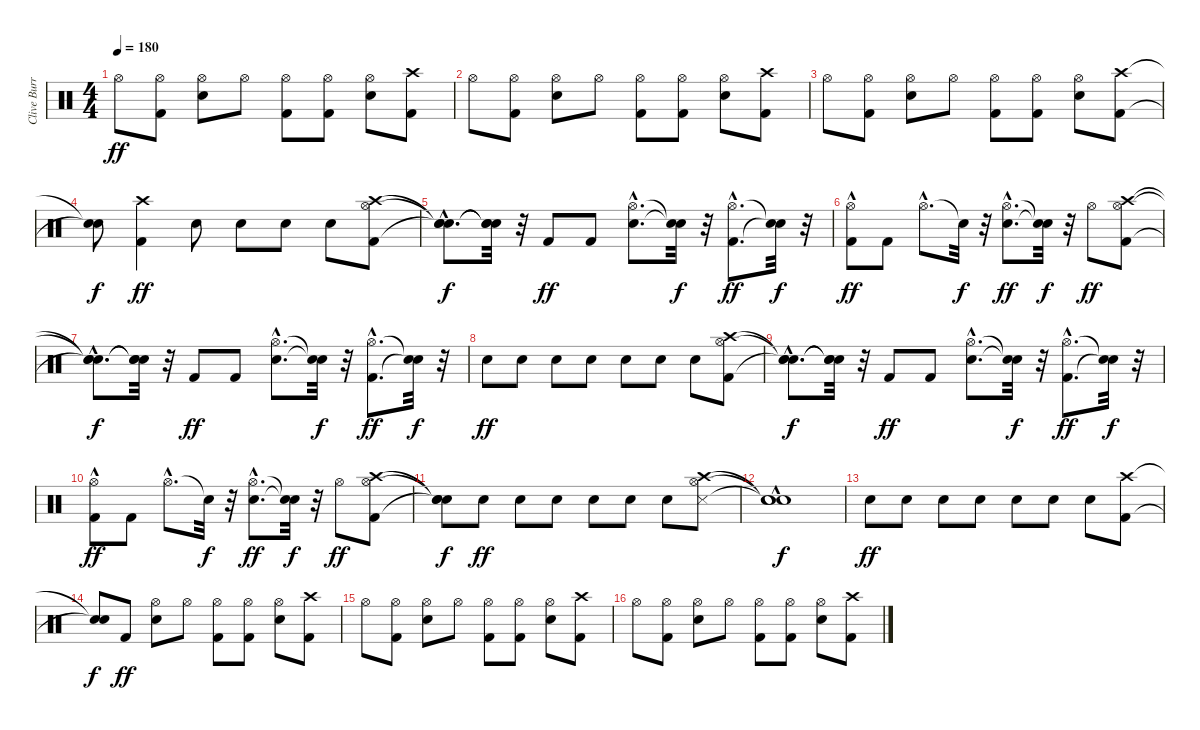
\track ("Clive Burr" "Clive Burr") {instrument percussion}
\staff {score}
\articulation defaults
\ts (4 4)
\tempo 180
\clef neutral
\ks c "Hi-Hat (open)".8{dy ff}
("Kick (hit) 2" "Hi-Hat (open)").8 ("Snare (hit) 2" "Hi-Hat (open)").8 "Hi-Hat (open)".8 ("Kick (hit) 2" "Hi-Hat (open)").8 ("Kick (hit) 2" "Hi-Hat (open)").8 ("Snare (hit) 2" "Hi-Hat (open)").8 ("Kick (hit) 2" "Crash high (hit)").8 |
"Hi-Hat (open)".8 ("Kick (hit) 2" "Hi-Hat (open)").8 ("Snare (hit) 2" "Hi-Hat (open)").8 "Hi-Hat (open)".8 ("Kick (hit) 2" "Hi-Hat (open)").8 ("Kick (hit) 2" "Hi-Hat (open)").8 ("Snare (hit) 2" "Hi-Hat (open)").8 ("Kick (hit) 2" "Crash high (hit)").8 |
"Hi-Hat (open)".8 ("Kick (hit) 2" "Hi-Hat (open)").8 ("Snare (hit) 2" "Hi-Hat (open)").8 "Hi-Hat (open)".8 ("Kick (hit) 2" "Hi-Hat (open)").8 ("Kick (hit) 2" "Hi-Hat (open)").8 ("Snare (hit) 2" "Hi-Hat (open)").8 ("Kick (hit) 2" "Crash high (hit)").8 |
("Snare (hit)"{t} "Snare (hit)"{t}).8{dy f} ("Kick (hit) 2" "Crash high (hit)").4{dy ff} "Snare (hit) 2".8 "Snare (hit) 2".8 "Snare (hit) 2".8 "Snare (hit) 2".8 ("Kick (hit) 2" "Hi-Hat (open)" "Crash high (hit)").8 |
("Snare (hit)"{hac t} "Snare (hit)"{hac t} "Snare (hit)"{hac t}).8{d dy f} ("Snare (hit)"{t} "Snare (hit)"{t} "Snare (hit)"{t}).32 r.32 "Kick (hit) 2".8{dy ff} "Kick (hit) 2".8 ("Snare (hit) 2"{hac} "Hi-Hat (open)"{hac}).8{d} ("Snare (hit)"{t} "Snare (hit)"{t}).32{dy f} r.32 ("Kick (hit) 2"{hac} "Hi-Hat (open)"{hac}).8{d dy ff} ("Snare (hit)"{t} "Snare (hit)"{t}).32{dy f} r.32 |
("Kick (hit) 2" "Hi-Hat (open)"{hac}).8{dy ff} "Kick (hit) 2".8 "Hi-Hat (open)"{hac}.8{d} "Snare (hit)"{t}.32{dy f} r.32 ("Snare (hit) 2"{hac} "Hi-Hat (open)"{hac}).8{d dy ff} ("Snare (hit)"{t} "Snare (hit)"{t}).32{dy f} r.32 "Hi-Hat (open)".8{dy ff} ("Kick (hit) 2" "Hi-Hat (open)" "Crash high (hit)").8 |
("Snare (hit)"{hac t} "Snare (hit)"{hac t} "Snare (hit)"{hac t}).8{d dy f} ("Snare (hit)"{t} "Snare (hit)"{t} "Snare (hit)"{t}).32 r.32 "Kick (hit) 2".8{dy ff} "Kick (hit) 2".8 ("Snare (hit) 2"{hac} "Hi-Hat (open)"{hac}).8{d} ("Snare (hit)"{t} "Snare (hit)"{t}).32{dy f} r.32 ("Kick (hit) 2"{hac} "Hi-Hat (open)"{hac}).8{d dy ff} ("Snare (hit)"{t} "Snare (hit)"{t}).32{dy f} r.32 |
"Snare (hit) 2".8{dy ff} "Snare (hit) 2".8 "Snare (hit) 2".8 "Snare (hit) 2".8 "Snare (hit) 2".8 "Snare (hit) 2".8 "Snare (hit) 2".8 ("Kick (hit) 2" "Hi-Hat (open)" "Crash high (hit)").8 |
("Snare (hit)"{hac t} "Snare (hit)"{hac t} "Snare (hit)"{hac t}).8{d dy f} ("Snare (hit)"{t} "Snare (hit)"{t} "Snare (hit)"{t}).32 r.32 "Kick (hit) 2".8{dy ff} "Kick (hit) 2".8 ("Snare (hit) 2"{hac} "Hi-Hat (open)"{hac}).8{d} ("Snare (hit)"{t} "Snare (hit)"{t}).32{dy f} r.32 ("Kick (hit) 2"{hac} "Hi-Hat (open)"{hac}).8{d dy ff} ("Snare (hit)"{t} "Snare (hit)"{t}).32{dy f} r.32 |
("Kick (hit) 2" "Hi-Hat (open)"{hac}).8{dy ff} "Kick (hit) 2".8 "Hi-Hat (open)"{hac}.8{d} "Snare (hit)"{t}.32{dy f} r.32 ("Snare (hit) 2"{hac} "Hi-Hat (open)"{hac}).8{d dy ff} ("Snare (hit)"{t} "Snare (hit)"{t}).32{dy f} r.32 "Hi-Hat (open)".8{dy ff} ("Kick (hit) 2" "Hi-Hat (open)" "Crash high (hit)").8 |
("Snare (hit)"{t} "Snare (hit)"{t} "Snare (hit)"{t}).8{dy f} "Snare (hit) 2".8{dy ff} "Snare (hit) 2".8 "Snare (hit) 2".8 "Snare (hit) 2".8 "Snare (hit) 2".8 "Snare (hit) 2".8 ("Snare (side stick) 3" "Hi-Hat (open)" "Crash high (hit)").8 |
("Snare (hit)"{t} "Snare (hit)"{hac t} "Snare (hit)"{hac t}).1{dy f} |
"Snare (hit) 2".8{dy ff} "Snare (hit) 2".8 "Snare (hit) 2".8 "Snare (hit) 2".8 "Snare (hit) 2".8 "Snare (hit) 2".8 "Snare (hit) 2".8 ("Kick (hit) 2" "Crash high (hit)").8 |
("Snare (hit)"{t} "Snare (hit)"{t}).8{dy f} "Kick (hit) 2".8{dy ff} ("Snare (hit) 2" "Hi-Hat (open)").8 "Hi-Hat (open)".8 ("Kick (hit) 2" "Hi-Hat (open)").8 ("Kick (hit) 2" "Hi-Hat (open)").8 ("Snare (hit) 2" "Hi-Hat (open)").8 ("Kick (hit) 2" "Crash high (hit)").8 |
"Hi-Hat (open)".8 ("Kick (hit) 2" "Hi-Hat (open)").8 ("Snare (hit) 2" "Hi-Hat (open)").8 "Hi-Hat (open)".8 ("Kick (hit) 2" "Hi-Hat (open)").8 ("Kick (hit) 2" "Hi-Hat (open)").8 ("Snare (hit) 2" "Hi-Hat (open)").8 ("Kick (hit) 2" "Crash high (hit)").8 |
"Hi-Hat (open)".8 ("Kick (hit) 2" "Hi-Hat (open)").8 ("Snare (hit) 2" "Hi-Hat (open)").8 "Hi-Hat (open)".8 ("Kick (hit) 2" "Hi-Hat (open)").8 ("Kick (hit) 2" "Hi-Hat (open)").8 ("Snare (hit) 2" "Hi-Hat (open)").8 ("Kick (hit) 2" "Crash high (hit)").8
